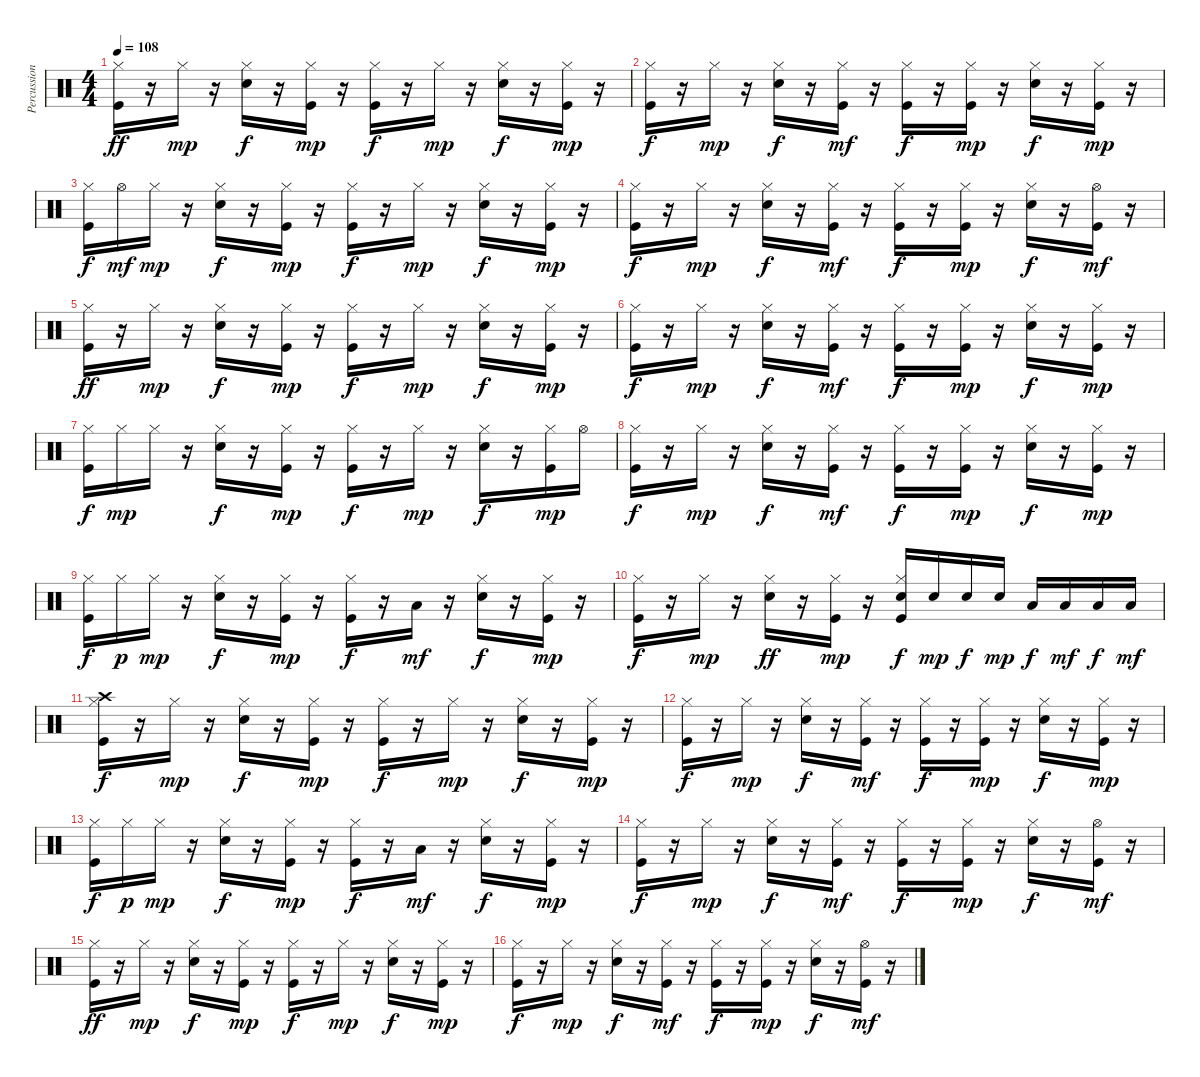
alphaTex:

\track ("Percussion" "Percussion") {instrument percussion}
\staff {score}
\articulation defaults
\ts (4 4)
\tempo 108
\clef neutral
\ks c
("Kick (hit)" "Hi-Hat (closed)").16{dy ff} r.16 "Hi-Hat (closed)".16{dy mp} r.16 ("Snare (hit) 2" "Hi-Hat (closed)").16{dy f} r.16 ("Kick (hit)" "Hi-Hat (closed)").16{dy mp} r.16 ("Kick (hit)" "Hi-Hat (closed)").16{dy f} r.16 "Hi-Hat (closed)".16{dy mp} r.16 ("Snare (hit) 2" "Hi-Hat (closed)").16{dy f} r.16 ("Kick (hit)" "Hi-Hat (closed)").16{dy mp} r.16 |
("Kick (hit)" "Hi-Hat (closed)").16{dy f} r.16 "Hi-Hat (closed)".16{dy mp} r.16 ("Snare (hit) 2" "Hi-Hat (closed)").16{dy f} r.16 ("Kick (hit)" "Hi-Hat (closed)").16{dy mf} r.16 ("Kick (hit)" "Hi-Hat (closed)").16{dy f} r.16 ("Kick (hit)" "Hi-Hat (closed)").16{dy mp} r.16 ("Snare (hit) 2" "Hi-Hat (closed)").16{dy f} r.16 ("Kick (hit)" "Hi-Hat (closed)").16{dy mp} r.16 |
("Kick (hit)" "Hi-Hat (closed)").16{dy f} "Hi-Hat (open)".16{dy mf} "Hi-Hat (closed)".16{dy mp} r.16 ("Snare (hit) 2" "Hi-Hat (closed)").16{dy f} r.16 ("Kick (hit)" "Hi-Hat (closed)").16{dy mp} r.16 ("Kick (hit)" "Hi-Hat (closed)").16{dy f} r.16 "Hi-Hat (closed)".16{dy mp} r.16 ("Snare (hit) 2" "Hi-Hat (closed)").16{dy f} r.16 ("Kick (hit)" "Hi-Hat (closed)").16{dy mp} r.16 |
("Kick (hit)" "Hi-Hat (closed)").16{dy f} r.16 "Hi-Hat (closed)".16{dy mp} r.16 ("Snare (hit) 2" "Hi-Hat (closed)").16{dy f} r.16 ("Kick (hit)" "Hi-Hat (closed)").16{dy mf} r.16 ("Kick (hit)" "Hi-Hat (closed)").16{dy f} r.16 ("Kick (hit)" "Hi-Hat (closed)").16{dy mp} r.16 ("Snare (hit) 2" "Hi-Hat (closed)").16{dy f} r.16 ("Kick (hit)" "Hi-Hat (open)").16{dy mf} r.16 |
("Kick (hit)" "Hi-Hat (closed)").16{dy ff} r.16 "Hi-Hat (closed)".16{dy mp} r.16 ("Snare (hit) 2" "Hi-Hat (closed)").16{dy f} r.16 ("Kick (hit)" "Hi-Hat (closed)").16{dy mp} r.16 ("Kick (hit)" "Hi-Hat (closed)").16{dy f} r.16 "Hi-Hat (closed)".16{dy mp} r.16 ("Snare (hit) 2" "Hi-Hat (closed)").16{dy f} r.16 ("Kick (hit)" "Hi-Hat (closed)").16{dy mp} r.16 |
("Kick (hit)" "Hi-Hat (closed)").16{dy f} r.16 "Hi-Hat (closed)".16{dy mp} r.16 ("Snare (hit) 2" "Hi-Hat (closed)").16{dy f} r.16 ("Kick (hit)" "Hi-Hat (closed)").16{dy mf} r.16 ("Kick (hit)" "Hi-Hat (closed)").16{dy f} r.16 ("Kick (hit)" "Hi-Hat (closed)").16{dy mp} r.16 ("Snare (hit) 2" "Hi-Hat (closed)").16{dy f} r.16 ("Kick (hit)" "Hi-Hat (closed)").16{dy mp} r.16 |
("Kick (hit)" "Hi-Hat (closed)").16{dy f} "Hi-Hat (closed)".16{dy mp} "Hi-Hat (closed)".16 r.16 ("Snare (hit) 2" "Hi-Hat (closed)").16{dy f} r.16 ("Kick (hit)" "Hi-Hat (closed)").16{dy mp} r.16 ("Kick (hit)" "Hi-Hat (closed)").16{dy f} r.16 "Hi-Hat (closed)".16{dy mp} r.16 ("Snare (hit) 2" "Hi-Hat (closed)").16{dy f} r.16 ("Kick (hit)" "Hi-Hat (closed)").16{dy mp} "Hi-Hat (open)".16 |
("Kick (hit)" "Hi-Hat (closed)").16{dy f} r.16 "Hi-Hat (closed)".16{dy mp} r.16 ("Snare (hit) 2" "Hi-Hat (closed)").16{dy f} r.16 ("Kick (hit)" "Hi-Hat (closed)").16{dy mf} r.16 ("Kick (hit)" "Hi-Hat (closed)").16{dy f} r.16 ("Kick (hit)" "Hi-Hat (closed)").16{dy mp} r.16 ("Snare (hit) 2" "Hi-Hat (closed)").16{dy f} r.16 ("Kick (hit)" "Hi-Hat (closed)").16{dy mp} r.16 |
("Kick (hit)" "Hi-Hat (closed)").16{dy f} "Hi-Hat (closed)".16{dy p} "Hi-Hat (closed)".16{dy mp} r.16 ("Snare (hit) 2" "Hi-Hat (closed)").16{dy f} r.16 ("Kick (hit)" "Hi-Hat (closed)").16{dy mp} r.16 ("Kick (hit)" "Hi-Hat (closed)").16{dy f} r.16 "Low Floor Tom (hit)".16{dy mf} r.16 ("Snare (hit) 2" "Hi-Hat (closed)").16{dy f} r.16 ("Kick (hit)" "Hi-Hat (closed)").16{dy mp} r.16 |
("Kick (hit)" "Hi-Hat (closed)").16{dy f} r.16 "Hi-Hat (closed)".16{dy mp} r.16 ("Snare (hit) 2" "Hi-Hat (closed)").16{dy ff} r.16 ("Kick (hit)" "Hi-Hat (closed)").16{dy mp} r.16 ("Kick (hit)" "Snare (hit) 2" "Hi-Hat (closed)").16{dy f} "Snare (hit) 2".16{dy mp} "Snare (hit) 2".16{dy f} "Snare (hit) 2".16{dy mp} "Low Tom (hit)".16{dy f} "Low Tom (hit)".16{dy mf} "Low Tom (hit)".16{dy f} "Low Tom (hit)".16{dy mf} |
("Kick (hit)" "Hi-Hat (closed)" "Crash high (hit)").16{dy f} r.16 "Hi-Hat (closed)".16{dy mp} r.16 ("Snare (hit) 2" "Hi-Hat (closed)").16{dy f} r.16 ("Kick (hit)" "Hi-Hat (closed)").16{dy mp} r.16 ("Kick (hit)" "Hi-Hat (closed)").16{dy f} r.16 "Hi-Hat (closed)".16{dy mp} r.16 ("Snare (hit) 2" "Hi-Hat (closed)").16{dy f} r.16 ("Kick (hit)" "Hi-Hat (closed)").16{dy mp} r.16 |
("Kick (hit)" "Hi-Hat (closed)").16{dy f} r.16 "Hi-Hat (closed)".16{dy mp} r.16 ("Snare (hit) 2" "Hi-Hat (closed)").16{dy f} r.16 ("Kick (hit)" "Hi-Hat (closed)").16{dy mf} r.16 ("Kick (hit)" "Hi-Hat (closed)").16{dy f} r.16 ("Kick (hit)" "Hi-Hat (closed)").16{dy mp} r.16 ("Snare (hit) 2" "Hi-Hat (closed)").16{dy f} r.16 ("Kick (hit)" "Hi-Hat (closed)").16{dy mp} r.16 |
("Kick (hit)" "Hi-Hat (closed)").16{dy f} "Hi-Hat (closed)".16{dy p} "Hi-Hat (closed)".16{dy mp} r.16 ("Snare (hit) 2" "Hi-Hat (closed)").16{dy f} r.16 ("Kick (hit)" "Hi-Hat (closed)").16{dy mp} r.16 ("Kick (hit)" "Hi-Hat (closed)").16{dy f} r.16 "Low Floor Tom (hit)".16{dy mf} r.16 ("Snare (hit) 2" "Hi-Hat (closed)").16{dy f} r.16 ("Kick (hit)" "Hi-Hat (closed)").16{dy mp} r.16 |
("Kick (hit)" "Hi-Hat (closed)").16{dy f} r.16 "Hi-Hat (closed)".16{dy mp} r.16 ("Snare (hit) 2" "Hi-Hat (closed)").16{dy f} r.16 ("Kick (hit)" "Hi-Hat (closed)").16{dy mf} r.16 ("Kick (hit)" "Hi-Hat (closed)").16{dy f} r.16 ("Kick (hit)" "Hi-Hat (closed)").16{dy mp} r.16 ("Snare (hit) 2" "Hi-Hat (closed)").16{dy f} r.16 ("Kick (hit)" "Hi-Hat (open)").16{dy mf} r.16 |
("Kick (hit)" "Hi-Hat (closed)").16{dy ff} r.16 "Hi-Hat (closed)".16{dy mp} r.16 ("Snare (hit) 2" "Hi-Hat (closed)").16{dy f} r.16 ("Kick (hit)" "Hi-Hat (closed)").16{dy mp} r.16 ("Kick (hit)" "Hi-Hat (closed)").16{dy f} r.16 "Hi-Hat (closed)".16{dy mp} r.16 ("Snare (hit) 2" "Hi-Hat (closed)").16{dy f} r.16 ("Kick (hit)" "Hi-Hat (closed)").16{dy mp} r.16 |
("Kick (hit)" "Hi-Hat (closed)").16{dy f} r.16 "Hi-Hat (closed)".16{dy mp} r.16 ("Snare (hit) 2" "Hi-Hat (closed)").16{dy f} r.16 ("Kick (hit)" "Hi-Hat (closed)").16{dy mf} r.16 ("Kick (hit)" "Hi-Hat (closed)").16{dy f} r.16 ("Kick (hit)" "Hi-Hat (closed)").16{dy mp} r.16 ("Snare (hit) 2" "Hi-Hat (closed)").16{dy f} r.16 ("Kick (hit)" "Hi-Hat (open)").16{dy mf} r.16
